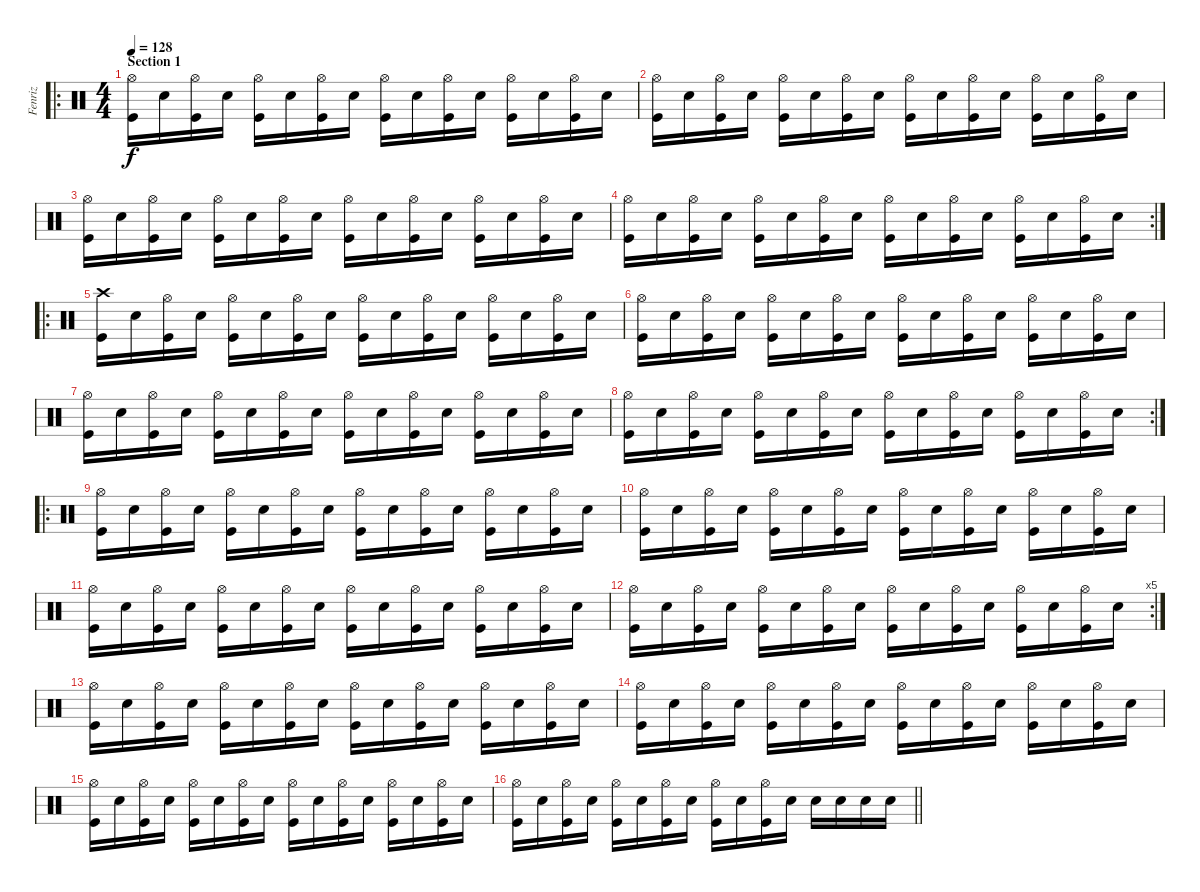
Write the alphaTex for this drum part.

\track ("Fenriz" "Fenriz") {instrument percussion}
\staff {score}
\articulation defaults
\ro
\ts (4 4)
\section ("" "Section 1")
\tempo 128
\clef neutral
\ks c
("Hi-Hat (open)" "Kick (hit)").16{dy f} "Snare (hit) 2".16 ("Hi-Hat (open)" "Kick (hit)").16 "Snare (hit) 2".16 ("Hi-Hat (open)" "Kick (hit)").16 "Snare (hit) 2".16 ("Hi-Hat (open)" "Kick (hit)").16 "Snare (hit) 2".16 ("Hi-Hat (open)" "Kick (hit)").16 "Snare (hit) 2".16 ("Hi-Hat (open)" "Kick (hit)").16 "Snare (hit) 2".16 ("Hi-Hat (open)" "Kick (hit)").16 "Snare (hit) 2".16 ("Hi-Hat (open)" "Kick (hit)").16 "Snare (hit) 2".16 |
("Hi-Hat (open)" "Kick (hit)").16 "Snare (hit) 2".16 ("Hi-Hat (open)" "Kick (hit)").16 "Snare (hit) 2".16 ("Hi-Hat (open)" "Kick (hit)").16 "Snare (hit) 2".16 ("Hi-Hat (open)" "Kick (hit)").16 "Snare (hit) 2".16 ("Hi-Hat (open)" "Kick (hit)").16 "Snare (hit) 2".16 ("Hi-Hat (open)" "Kick (hit)").16 "Snare (hit) 2".16 ("Hi-Hat (open)" "Kick (hit)").16 "Snare (hit) 2".16 ("Hi-Hat (open)" "Kick (hit)").16 "Snare (hit) 2".16 |
("Hi-Hat (open)" "Kick (hit)").16 "Snare (hit) 2".16 ("Hi-Hat (open)" "Kick (hit)").16 "Snare (hit) 2".16 ("Hi-Hat (open)" "Kick (hit)").16 "Snare (hit) 2".16 ("Hi-Hat (open)" "Kick (hit)").16 "Snare (hit) 2".16 ("Hi-Hat (open)" "Kick (hit)").16 "Snare (hit) 2".16 ("Hi-Hat (open)" "Kick (hit)").16 "Snare (hit) 2".16 ("Hi-Hat (open)" "Kick (hit)").16 "Snare (hit) 2".16 ("Hi-Hat (open)" "Kick (hit)").16 "Snare (hit) 2".16 |
\rc 2
("Hi-Hat (open)" "Kick (hit)").16 "Snare (hit) 2".16 ("Hi-Hat (open)" "Kick (hit)").16 "Snare (hit) 2".16 ("Hi-Hat (open)" "Kick (hit)").16 "Snare (hit) 2".16 ("Hi-Hat (open)" "Kick (hit)").16 "Snare (hit) 2".16 ("Hi-Hat (open)" "Kick (hit)").16 "Snare (hit) 2".16 ("Hi-Hat (open)" "Kick (hit)").16 "Snare (hit) 2".16 ("Hi-Hat (open)" "Kick (hit)").16 "Snare (hit) 2".16 ("Hi-Hat (open)" "Kick (hit)").16 "Snare (hit) 2".16 |
\ro
("Crash high (hit)" "Kick (hit)").16 "Snare (hit) 2".16 ("Hi-Hat (open)" "Kick (hit)").16 "Snare (hit) 2".16 ("Hi-Hat (open)" "Kick (hit)").16 "Snare (hit) 2".16 ("Hi-Hat (open)" "Kick (hit)").16 "Snare (hit) 2".16 ("Hi-Hat (open)" "Kick (hit)").16 "Snare (hit) 2".16 ("Hi-Hat (open)" "Kick (hit)").16 "Snare (hit) 2".16 ("Hi-Hat (open)" "Kick (hit)").16 "Snare (hit) 2".16 ("Hi-Hat (open)" "Kick (hit)").16 "Snare (hit) 2".16 |
("Hi-Hat (open)" "Kick (hit)").16 "Snare (hit) 2".16 ("Hi-Hat (open)" "Kick (hit)").16 "Snare (hit) 2".16 ("Hi-Hat (open)" "Kick (hit)").16 "Snare (hit) 2".16 ("Hi-Hat (open)" "Kick (hit)").16 "Snare (hit) 2".16 ("Hi-Hat (open)" "Kick (hit)").16 "Snare (hit) 2".16 ("Hi-Hat (open)" "Kick (hit)").16 "Snare (hit) 2".16 ("Hi-Hat (open)" "Kick (hit)").16 "Snare (hit) 2".16 ("Hi-Hat (open)" "Kick (hit)").16 "Snare (hit) 2".16 |
("Hi-Hat (open)" "Kick (hit)").16 "Snare (hit) 2".16 ("Hi-Hat (open)" "Kick (hit)").16 "Snare (hit) 2".16 ("Hi-Hat (open)" "Kick (hit)").16 "Snare (hit) 2".16 ("Hi-Hat (open)" "Kick (hit)").16 "Snare (hit) 2".16 ("Hi-Hat (open)" "Kick (hit)").16 "Snare (hit) 2".16 ("Hi-Hat (open)" "Kick (hit)").16 "Snare (hit) 2".16 ("Hi-Hat (open)" "Kick (hit)").16 "Snare (hit) 2".16 ("Hi-Hat (open)" "Kick (hit)").16 "Snare (hit) 2".16 |
\rc 2
("Hi-Hat (open)" "Kick (hit)").16 "Snare (hit) 2".16 ("Hi-Hat (open)" "Kick (hit)").16 "Snare (hit) 2".16 ("Hi-Hat (open)" "Kick (hit)").16 "Snare (hit) 2".16 ("Hi-Hat (open)" "Kick (hit)").16 "Snare (hit) 2".16 ("Hi-Hat (open)" "Kick (hit)").16 "Snare (hit) 2".16 ("Hi-Hat (open)" "Kick (hit)").16 "Snare (hit) 2".16 ("Hi-Hat (open)" "Kick (hit)").16 "Snare (hit) 2".16 ("Hi-Hat (open)" "Kick (hit)").16 "Snare (hit) 2".16 |
\ro
("Hi-Hat (open)" "Kick (hit)").16 "Snare (hit) 2".16 ("Hi-Hat (open)" "Kick (hit)").16 "Snare (hit) 2".16 ("Hi-Hat (open)" "Kick (hit)").16 "Snare (hit) 2".16 ("Hi-Hat (open)" "Kick (hit)").16 "Snare (hit) 2".16 ("Hi-Hat (open)" "Kick (hit)").16 "Snare (hit) 2".16 ("Hi-Hat (open)" "Kick (hit)").16 "Snare (hit) 2".16 ("Hi-Hat (open)" "Kick (hit)").16 "Snare (hit) 2".16 ("Hi-Hat (open)" "Kick (hit)").16 "Snare (hit) 2".16 |
("Hi-Hat (open)" "Kick (hit)").16 "Snare (hit) 2".16 ("Hi-Hat (open)" "Kick (hit)").16 "Snare (hit) 2".16 ("Hi-Hat (open)" "Kick (hit)").16 "Snare (hit) 2".16 ("Hi-Hat (open)" "Kick (hit)").16 "Snare (hit) 2".16 ("Hi-Hat (open)" "Kick (hit)").16 "Snare (hit) 2".16 ("Hi-Hat (open)" "Kick (hit)").16 "Snare (hit) 2".16 ("Hi-Hat (open)" "Kick (hit)").16 "Snare (hit) 2".16 ("Hi-Hat (open)" "Kick (hit)").16 "Snare (hit) 2".16 |
("Hi-Hat (open)" "Kick (hit)").16 "Snare (hit) 2".16 ("Hi-Hat (open)" "Kick (hit)").16 "Snare (hit) 2".16 ("Hi-Hat (open)" "Kick (hit)").16 "Snare (hit) 2".16 ("Hi-Hat (open)" "Kick (hit)").16 "Snare (hit) 2".16 ("Hi-Hat (open)" "Kick (hit)").16 "Snare (hit) 2".16 ("Hi-Hat (open)" "Kick (hit)").16 "Snare (hit) 2".16 ("Hi-Hat (open)" "Kick (hit)").16 "Snare (hit) 2".16 ("Hi-Hat (open)" "Kick (hit)").16 "Snare (hit) 2".16 |
\rc 5
("Hi-Hat (open)" "Kick (hit)").16 "Snare (hit) 2".16 ("Hi-Hat (open)" "Kick (hit)").16 "Snare (hit) 2".16 ("Hi-Hat (open)" "Kick (hit)").16 "Snare (hit) 2".16 ("Hi-Hat (open)" "Kick (hit)").16 "Snare (hit) 2".16 ("Hi-Hat (open)" "Kick (hit)").16 "Snare (hit) 2".16 ("Hi-Hat (open)" "Kick (hit)").16 "Snare (hit) 2".16 ("Hi-Hat (open)" "Kick (hit)").16 "Snare (hit) 2".16 ("Hi-Hat (open)" "Kick (hit)").16 "Snare (hit) 2".16 |
("Hi-Hat (open)" "Kick (hit)").16 "Snare (hit) 2".16 ("Hi-Hat (open)" "Kick (hit)").16 "Snare (hit) 2".16 ("Hi-Hat (open)" "Kick (hit)").16 "Snare (hit) 2".16 ("Hi-Hat (open)" "Kick (hit)").16 "Snare (hit) 2".16 ("Hi-Hat (open)" "Kick (hit)").16 "Snare (hit) 2".16 ("Hi-Hat (open)" "Kick (hit)").16 "Snare (hit) 2".16 ("Hi-Hat (open)" "Kick (hit)").16 "Snare (hit) 2".16 ("Hi-Hat (open)" "Kick (hit)").16 "Snare (hit) 2".16 |
("Hi-Hat (open)" "Kick (hit)").16 "Snare (hit) 2".16 ("Hi-Hat (open)" "Kick (hit)").16 "Snare (hit) 2".16 ("Hi-Hat (open)" "Kick (hit)").16 "Snare (hit) 2".16 ("Hi-Hat (open)" "Kick (hit)").16 "Snare (hit) 2".16 ("Hi-Hat (open)" "Kick (hit)").16 "Snare (hit) 2".16 ("Hi-Hat (open)" "Kick (hit)").16 "Snare (hit) 2".16 ("Hi-Hat (open)" "Kick (hit)").16 "Snare (hit) 2".16 ("Hi-Hat (open)" "Kick (hit)").16 "Snare (hit) 2".16 |
("Hi-Hat (open)" "Kick (hit)").16 "Snare (hit) 2".16 ("Hi-Hat (open)" "Kick (hit)").16 "Snare (hit) 2".16 ("Hi-Hat (open)" "Kick (hit)").16 "Snare (hit) 2".16 ("Hi-Hat (open)" "Kick (hit)").16 "Snare (hit) 2".16 ("Hi-Hat (open)" "Kick (hit)").16 "Snare (hit) 2".16 ("Hi-Hat (open)" "Kick (hit)").16 "Snare (hit) 2".16 ("Hi-Hat (open)" "Kick (hit)").16 "Snare (hit) 2".16 ("Hi-Hat (open)" "Kick (hit)").16 "Snare (hit) 2".16 |
\barLineRight lightlight
("Hi-Hat (open)" "Kick (hit)").16 "Snare (hit) 2".16 ("Hi-Hat (open)" "Kick (hit)").16 "Snare (hit) 2".16 ("Hi-Hat (open)" "Kick (hit)").16 "Snare (hit) 2".16 ("Hi-Hat (open)" "Kick (hit)").16 "Snare (hit) 2".16 ("Hi-Hat (open)" "Kick (hit)").16 "Snare (hit) 2".16 ("Hi-Hat (open)" "Kick (hit)").16 "Snare (hit) 2".16 "Snare (hit) 2".16 "Snare (hit) 2".16 "Snare (hit) 2".16 "Snare (hit) 2".16
